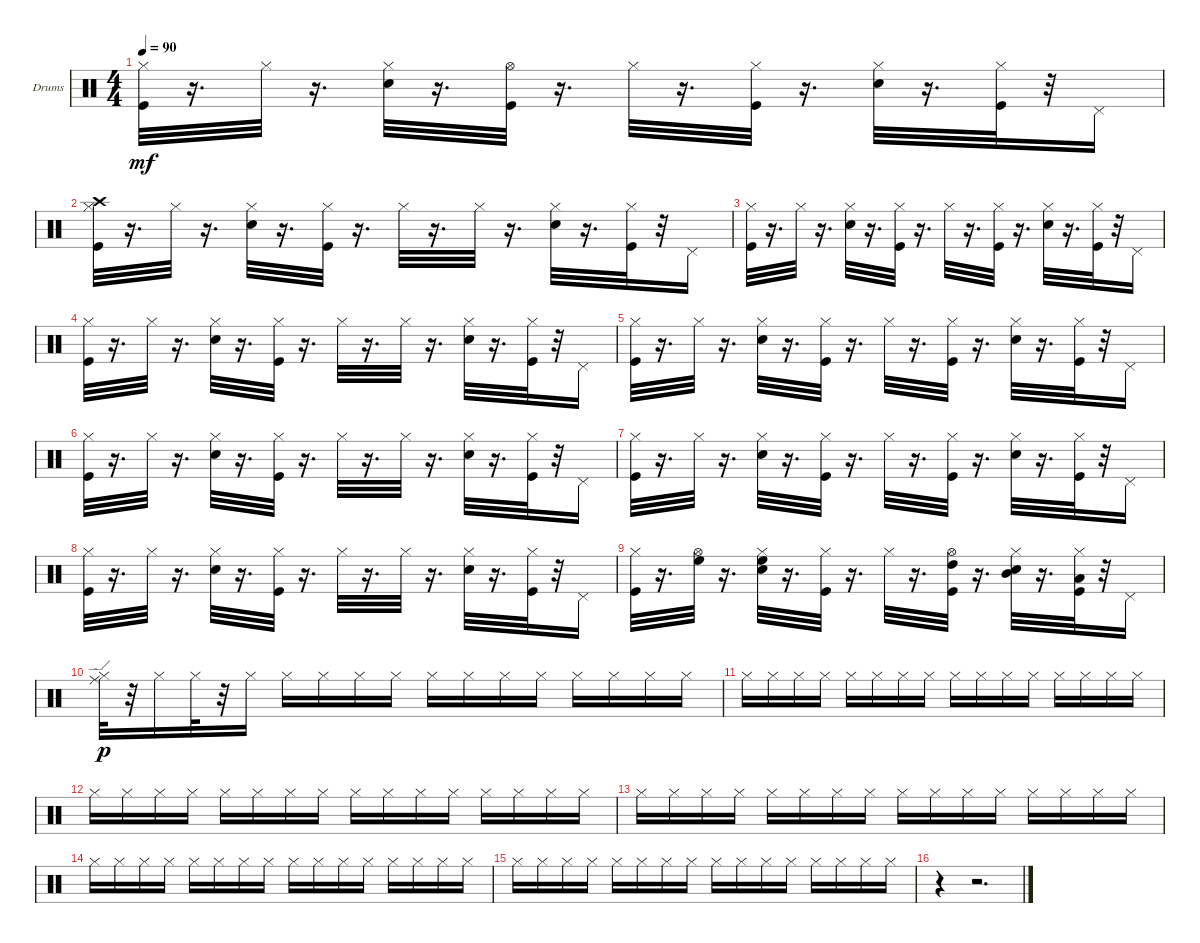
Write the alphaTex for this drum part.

\bracketExtendMode groupsimilarinstruments
\firstSystemTrackNameOrientation horizontal
\otherSystemsTrackNameOrientation horizontal
\track ("Drumkit" "Drums") {instrument percussion}
\staff {score}
\articulation defaults
\ts (4 4)
\tempo 90
\clef neutral
\ks c
("Kick (hit)" "Hi-Hat (closed)").32{dy mf} r.16{d} "Hi-Hat (closed)".32 r.16{d} ("Snare (hit) 2" "Hi-Hat (closed)").32 r.16{d} ("Kick (hit)" "Hi-Hat (open)").32 r.16{d} "Hi-Hat (closed)".32 r.16{d} ("Kick (hit)" "Hi-Hat (closed)").32 r.16{d} ("Snare (hit) 2" "Hi-Hat (closed)").32 r.16{d} ("Kick (hit)" "Hi-Hat (closed)").32 r.32 "Pedal Hi-Hat (hit)".16 |
("Crash high (hit)" "Kick (hit)" "Hi-Hat (closed)").32 r.16{d} "Hi-Hat (closed)".32 r.16{d} ("Snare (hit) 2" "Hi-Hat (closed)").32 r.16{d} ("Kick (hit)" "Hi-Hat (closed)").32 r.16{d} "Hi-Hat (closed)".32 r.16{d} "Hi-Hat (closed)".32 r.16{d} ("Snare (hit) 2" "Hi-Hat (closed)").32 r.16{d} ("Kick (hit)" "Hi-Hat (closed)").32 r.32 "Pedal Hi-Hat (hit)".16 |
("Kick (hit)" "Hi-Hat (closed)").32 r.16{d} "Hi-Hat (closed)".32 r.16{d} ("Snare (hit) 2" "Hi-Hat (closed)").32 r.16{d} ("Kick (hit)" "Hi-Hat (closed)").32 r.16{d} "Hi-Hat (closed)".32 r.16{d} ("Kick (hit)" "Hi-Hat (closed)").32 r.16{d} ("Snare (hit) 2" "Hi-Hat (closed)").32 r.16{d} ("Kick (hit)" "Hi-Hat (closed)").32 r.32 "Pedal Hi-Hat (hit)".16 |
("Kick (hit)" "Hi-Hat (closed)").32 r.16{d} "Hi-Hat (closed)".32 r.16{d} ("Snare (hit) 2" "Hi-Hat (closed)").32 r.16{d} ("Kick (hit)" "Hi-Hat (closed)").32 r.16{d} "Hi-Hat (closed)".32 r.16{d} "Hi-Hat (closed)".32 r.16{d} ("Snare (hit) 2" "Hi-Hat (closed)").32 r.16{d} ("Kick (hit)" "Hi-Hat (closed)").32 r.32 "Pedal Hi-Hat (hit)".16 |
("Kick (hit)" "Hi-Hat (closed)").32 r.16{d} "Hi-Hat (closed)".32 r.16{d} ("Snare (hit) 2" "Hi-Hat (closed)").32 r.16{d} ("Kick (hit)" "Hi-Hat (closed)").32 r.16{d} "Hi-Hat (closed)".32 r.16{d} ("Kick (hit)" "Hi-Hat (closed)").32 r.16{d} ("Snare (hit) 2" "Hi-Hat (closed)").32 r.16{d} ("Kick (hit)" "Hi-Hat (closed)").32 r.32 "Pedal Hi-Hat (hit)".16 |
("Kick (hit)" "Hi-Hat (closed)").32 r.16{d} "Hi-Hat (closed)".32 r.16{d} ("Snare (hit) 2" "Hi-Hat (closed)").32 r.16{d} ("Kick (hit)" "Hi-Hat (closed)").32 r.16{d} "Hi-Hat (closed)".32 r.16{d} "Hi-Hat (closed)".32 r.16{d} ("Snare (hit) 2" "Hi-Hat (closed)").32 r.16{d} ("Kick (hit)" "Hi-Hat (closed)").32 r.32 "Pedal Hi-Hat (hit)".16 |
("Kick (hit)" "Hi-Hat (closed)").32 r.16{d} "Hi-Hat (closed)".32 r.16{d} ("Snare (hit) 2" "Hi-Hat (closed)").32 r.16{d} ("Kick (hit)" "Hi-Hat (closed)").32 r.16{d} "Hi-Hat (closed)".32 r.16{d} ("Kick (hit)" "Hi-Hat (closed)").32 r.16{d} ("Snare (hit) 2" "Hi-Hat (closed)").32 r.16{d} ("Kick (hit)" "Hi-Hat (closed)").32 r.32 "Pedal Hi-Hat (hit)".16 |
("Kick (hit)" "Hi-Hat (closed)").32 r.16{d} "Hi-Hat (closed)".32 r.16{d} ("Snare (hit) 2" "Hi-Hat (closed)").32 r.16{d} ("Kick (hit)" "Hi-Hat (closed)").32 r.16{d} "Hi-Hat (closed)".32 r.16{d} "Hi-Hat (closed)".32 r.16{d} ("Snare (hit) 2" "Hi-Hat (closed)").32 r.16{d} ("Kick (hit)" "Hi-Hat (closed)").32 r.32 "Pedal Hi-Hat (hit)".16 |
("Hi-Hat (closed)" "Kick (hit)").32 r.16{d} ("High Floor Tom (hit)" "Hi-Hat (open)").32 r.16{d} ("High Floor Tom (hit)" "Snare (hit) 2" "Hi-Hat (closed)").32 r.16{d} ("Hi-Hat (closed)" "Kick (hit)").32 r.16{d} "Hi-Hat (closed)".32 r.16{d} ("High Tom (hit)" "Kick (hit)" "Hi-Hat (open)").32 r.16{d} ("Mid Tom (hit)" "Snare (hit) 2" "Hi-Hat (closed)").32 r.16{d} ("Low Tom (hit)" "Hi-Hat (closed)" "Kick (hit)").32 r.32 "Pedal Hi-Hat (hit)".16 |
("Hi-Hat (closed)" "Ride (edge)").32{dy p} r.32 "Hi-Hat (closed)".16 "Hi-Hat (closed)".32 r.32 "Hi-Hat (closed)".16 "Hi-Hat (closed)".16 "Hi-Hat (closed)".16 "Hi-Hat (closed)".16 "Hi-Hat (closed)".16 "Hi-Hat (closed)".16 "Hi-Hat (closed)".16 "Hi-Hat (closed)".16 "Hi-Hat (closed)".16 "Hi-Hat (closed)".16 "Hi-Hat (closed)".16 "Hi-Hat (closed)".16 "Hi-Hat (closed)".16 |
"Hi-Hat (closed)".16 "Hi-Hat (closed)".16 "Hi-Hat (closed)".16 "Hi-Hat (closed)".16 "Hi-Hat (closed)".16 "Hi-Hat (closed)".16 "Hi-Hat (closed)".16 "Hi-Hat (closed)".16 "Hi-Hat (closed)".16 "Hi-Hat (closed)".16 "Hi-Hat (closed)".16 "Hi-Hat (closed)".16 "Hi-Hat (closed)".16 "Hi-Hat (closed)".16 "Hi-Hat (closed)".16 "Hi-Hat (closed)".16 |
"Hi-Hat (closed)".16 "Hi-Hat (closed)".16 "Hi-Hat (closed)".16 "Hi-Hat (closed)".16 "Hi-Hat (closed)".16 "Hi-Hat (closed)".16 "Hi-Hat (closed)".16 "Hi-Hat (closed)".16 "Hi-Hat (closed)".16 "Hi-Hat (closed)".16 "Hi-Hat (closed)".16 "Hi-Hat (closed)".16 "Hi-Hat (closed)".16 "Hi-Hat (closed)".16 "Hi-Hat (closed)".16 "Hi-Hat (closed)".16 |
"Hi-Hat (closed)".16 "Hi-Hat (closed)".16 "Hi-Hat (closed)".16 "Hi-Hat (closed)".16 "Hi-Hat (closed)".16 "Hi-Hat (closed)".16 "Hi-Hat (closed)".16 "Hi-Hat (closed)".16 "Hi-Hat (closed)".16 "Hi-Hat (closed)".16 "Hi-Hat (closed)".16 "Hi-Hat (closed)".16 "Hi-Hat (closed)".16 "Hi-Hat (closed)".16 "Hi-Hat (closed)".16 "Hi-Hat (closed)".16 |
"Hi-Hat (closed)".16 "Hi-Hat (closed)".16 "Hi-Hat (closed)".16 "Hi-Hat (closed)".16 "Hi-Hat (closed)".16 "Hi-Hat (closed)".16 "Hi-Hat (closed)".16 "Hi-Hat (closed)".16 "Hi-Hat (closed)".16 "Hi-Hat (closed)".16 "Hi-Hat (closed)".16 "Hi-Hat (closed)".16 "Hi-Hat (closed)".16 "Hi-Hat (closed)".16 "Hi-Hat (closed)".16 "Hi-Hat (closed)".16 |
"Hi-Hat (closed)".16 "Hi-Hat (closed)".16 "Hi-Hat (closed)".16 "Hi-Hat (closed)".16 "Hi-Hat (closed)".16 "Hi-Hat (closed)".16 "Hi-Hat (closed)".16 "Hi-Hat (closed)".16 "Hi-Hat (closed)".16 "Hi-Hat (closed)".16 "Hi-Hat (closed)".16 "Hi-Hat (closed)".16 "Hi-Hat (closed)".16 "Hi-Hat (closed)".16 "Hi-Hat (closed)".16 "Hi-Hat (closed)".16 |
r.4 r.2{d}
